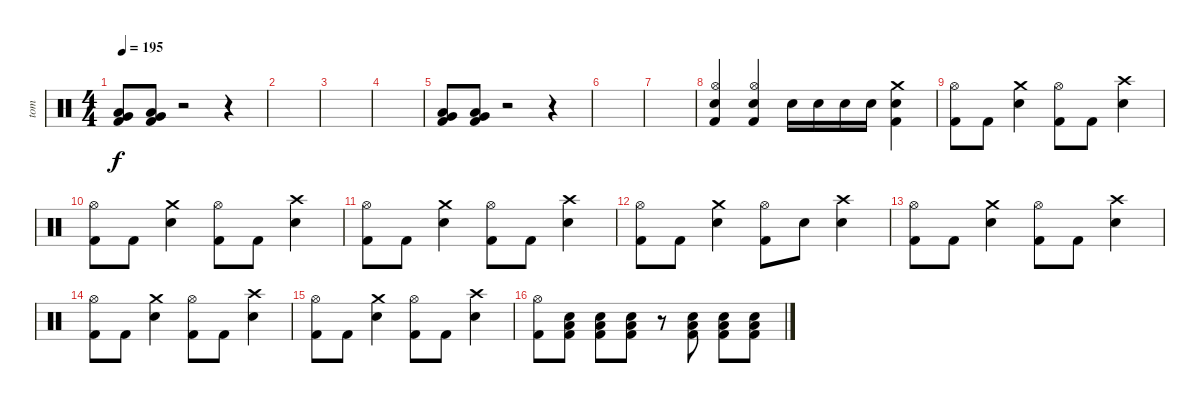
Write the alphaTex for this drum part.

\track ("tom" "tom") {instrument percussion}
\staff {score}
\articulation defaults
\ts (4 4)
\tempo 195
\clef neutral
\ks c
("Very Low Tom (hit)" "Low Tom (hit)" "Kick (hit) 2").8{dy f} ("Very Low Tom (hit)" "Low Tom (hit)" "Kick (hit) 2").8 r.2 r.4 |
|
|
|
("Very Low Tom (hit)" "Low Tom (hit)" "Kick (hit) 2").8 ("Very Low Tom (hit)" "Low Tom (hit)" "Kick (hit) 2").8 r.2 r.4 |
|
|
("Hi-Hat (open)" "Electric Snare (hit)" "Kick (hit) 2").4 ("Hi-Hat (open)" "Electric Snare (hit)" "Kick (hit) 2").4 "Electric Snare (hit)".16 "Electric Snare (hit)".16 "Electric Snare (hit)".16 "Electric Snare (hit)".16 ("Kick (hit) 2" "Crash medium (hit)" "Electric Snare (hit)").4 |
("Hi-Hat (open)" "Kick (hit) 2").8 "Kick (hit) 2".8 ("Crash medium (hit)" "Electric Snare (hit)").4 ("Hi-Hat (open)" "Kick (hit) 2").8 "Kick (hit) 2".8 ("Crash high (hit)" "Electric Snare (hit)").4 |
("Hi-Hat (open)" "Kick (hit) 2").8 "Kick (hit) 2".8 ("Crash medium (hit)" "Electric Snare (hit)").4 ("Hi-Hat (open)" "Kick (hit) 2").8 "Kick (hit) 2".8 ("Crash high (hit)" "Electric Snare (hit)").4 |
("Hi-Hat (open)" "Kick (hit) 2").8 "Kick (hit) 2".8 ("Crash medium (hit)" "Electric Snare (hit)").4 ("Hi-Hat (open)" "Kick (hit) 2").8 "Kick (hit) 2".8 ("Crash high (hit)" "Electric Snare (hit)").4 |
("Hi-Hat (open)" "Kick (hit) 2").8 "Kick (hit) 2".8 ("Crash medium (hit)" "Electric Snare (hit)").4 ("Hi-Hat (open)" "Kick (hit) 2").8 "Electric Snare (hit)".8 ("Crash high (hit)" "Electric Snare (hit)").4 |
("Hi-Hat (open)" "Kick (hit) 2").8 "Kick (hit) 2".8 ("Crash medium (hit)" "Electric Snare (hit)").4 ("Hi-Hat (open)" "Kick (hit) 2").8 "Kick (hit) 2".8 ("Crash high (hit)" "Electric Snare (hit)").4 |
("Hi-Hat (open)" "Kick (hit) 2").8 "Kick (hit) 2".8 ("Crash medium (hit)" "Electric Snare (hit)").4 ("Hi-Hat (open)" "Kick (hit) 2").8 "Kick (hit) 2".8 ("Crash high (hit)" "Electric Snare (hit)").4 |
("Hi-Hat (open)" "Kick (hit) 2").8 "Kick (hit) 2".8 ("Crash medium (hit)" "Electric Snare (hit)").4 ("Hi-Hat (open)" "Kick (hit) 2").8 "Kick (hit) 2".8 ("Crash high (hit)" "Electric Snare (hit)").4 |
("Hi-Hat (open)" "Kick (hit) 2").8 ("Electric Snare (hit)" "Low Tom (hit)" "Kick (hit) 2").8 ("Electric Snare (hit)" "Low Tom (hit)" "Kick (hit) 2").8 ("Electric Snare (hit)" "Low Tom (hit)" "Kick (hit) 2").8 r.8 ("Electric Snare (hit)" "Low Tom (hit)" "Kick (hit) 2").8 ("Electric Snare (hit)" "Low Tom (hit)" "Kick (hit) 2").8 ("Electric Snare (hit)" "Low Tom (hit)" "Kick (hit) 2").8
